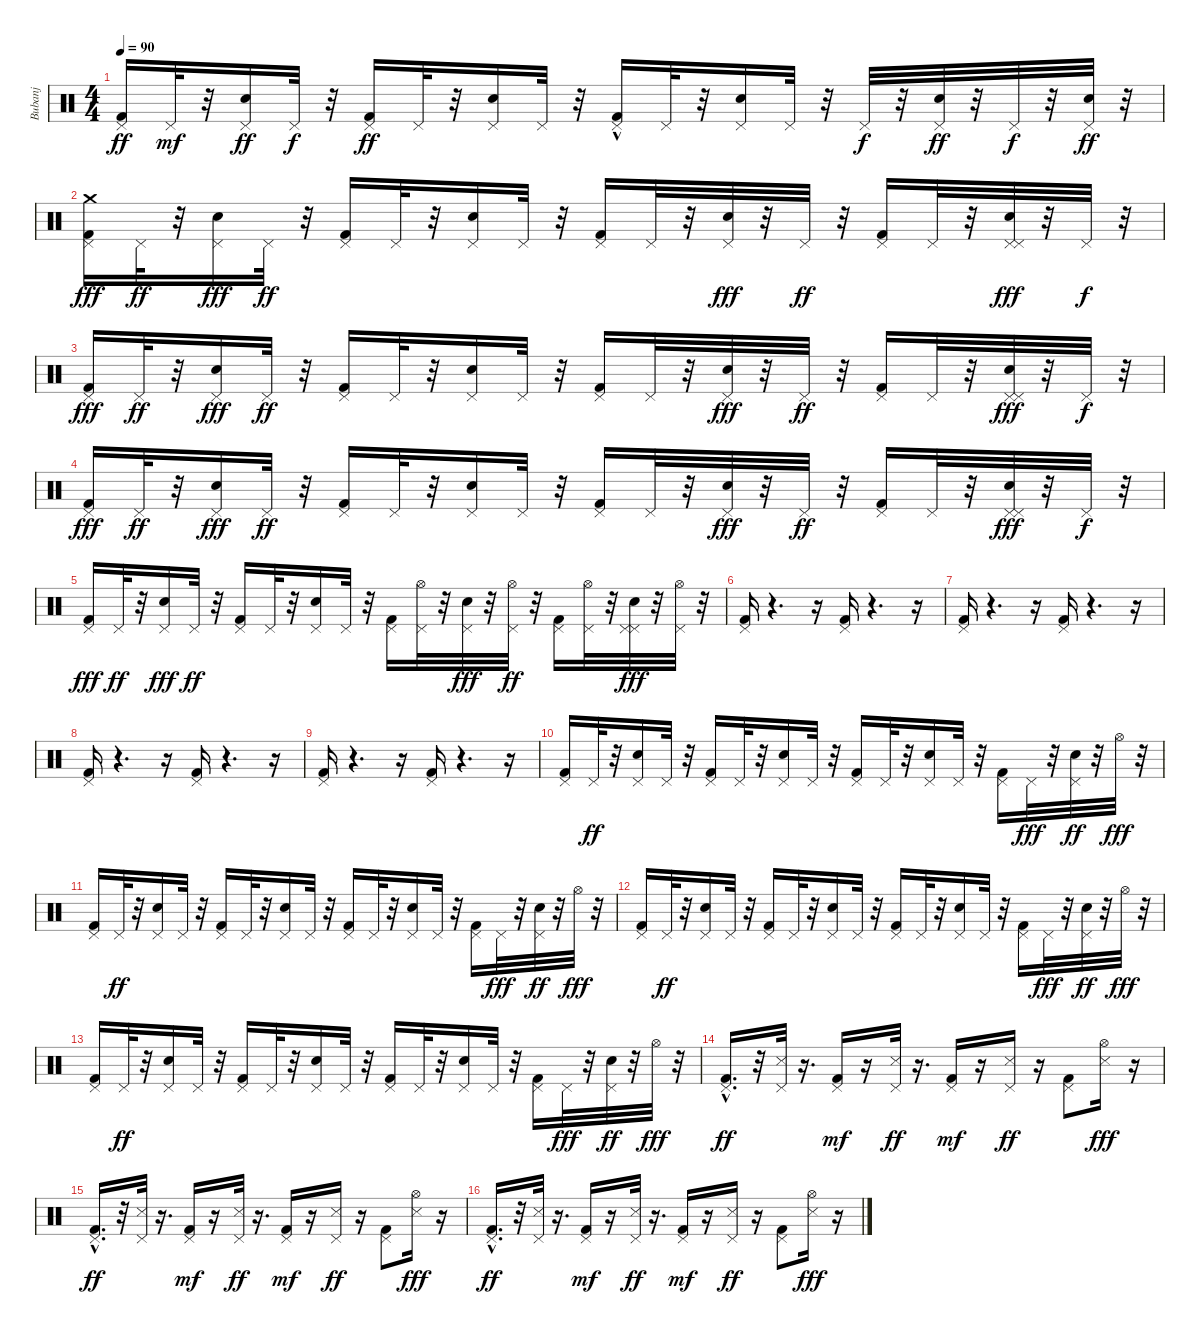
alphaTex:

\track ("Bubanj" "Bubanj") {instrument percussion}
\staff {score}
\articulation defaults
\ts (4 4)
\tempo 90
\clef neutral
\ks c
("Pedal Hi-Hat (hit)" "Kick (hit) 2").16{dy ff} "Pedal Hi-Hat (hit)".32{dy mf} r.32 ("Electric Snare (hit)" "Pedal Hi-Hat (hit)").16{dy ff} "Pedal Hi-Hat (hit)".32{dy f} r.32 ("Kick (hit) 2" "Pedal Hi-Hat (hit)").16{dy ff} "Pedal Hi-Hat (hit)".32 r.32 ("Electric Snare (hit)" "Pedal Hi-Hat (hit)").16 "Pedal Hi-Hat (hit)".32 r.32 ("Kick (hit) 2"{hac} "Pedal Hi-Hat (hit)").16 "Pedal Hi-Hat (hit)".32 r.32 ("Electric Snare (hit)" "Pedal Hi-Hat (hit)").16 "Pedal Hi-Hat (hit)".32 r.32 "Pedal Hi-Hat (hit)".32{dy f} r.32 ("Electric Snare (hit)" "Pedal Hi-Hat (hit)").32{dy ff} r.32 "Pedal Hi-Hat (hit)".32{dy f} r.32 ("Electric Snare (hit)" "Pedal Hi-Hat (hit)").32{dy ff} r.32 |
("Crash medium (hit)" "Pedal Hi-Hat (hit)" "Kick (hit) 2").16{dy fff} "Pedal Hi-Hat (hit)".32{dy ff} r.32 ("Pedal Hi-Hat (hit)" "Electric Snare (hit)").16{dy fff} "Pedal Hi-Hat (hit)".32{dy ff} r.32 ("Pedal Hi-Hat (hit)" "Kick (hit) 2").16 "Pedal Hi-Hat (hit)".32 r.32 ("Pedal Hi-Hat (hit)" "Electric Snare (hit)").16 "Pedal Hi-Hat (hit)".32 r.32 ("Pedal Hi-Hat (hit)" "Kick (hit) 2").16 "Pedal Hi-Hat (hit)".32 r.32 ("Pedal Hi-Hat (hit)" "Electric Snare (hit)").32{dy fff} r.32 "Pedal Hi-Hat (hit)".32{dy ff} r.32 ("Pedal Hi-Hat (hit)" "Kick (hit) 2").16 "Pedal Hi-Hat (hit)".32 r.32 ("Pedal Hi-Hat (hit)" "Pedal Hi-Hat (hit)" "Electric Snare (hit)").32{dy fff} r.32 "Pedal Hi-Hat (hit)".32{dy f} r.32 |
("Pedal Hi-Hat (hit)" "Kick (hit) 2").16{dy fff} "Pedal Hi-Hat (hit)".32{dy ff} r.32 ("Pedal Hi-Hat (hit)" "Electric Snare (hit)").16{dy fff} "Pedal Hi-Hat (hit)".32{dy ff} r.32 ("Pedal Hi-Hat (hit)" "Kick (hit) 2").16 "Pedal Hi-Hat (hit)".32 r.32 ("Pedal Hi-Hat (hit)" "Electric Snare (hit)").16 "Pedal Hi-Hat (hit)".32 r.32 ("Pedal Hi-Hat (hit)" "Kick (hit) 2").16 "Pedal Hi-Hat (hit)".32 r.32 ("Pedal Hi-Hat (hit)" "Electric Snare (hit)").32{dy fff} r.32 "Pedal Hi-Hat (hit)".32{dy ff} r.32 ("Pedal Hi-Hat (hit)" "Kick (hit) 2").16 "Pedal Hi-Hat (hit)".32 r.32 ("Pedal Hi-Hat (hit)" "Pedal Hi-Hat (hit)" "Electric Snare (hit)").32{dy fff} r.32 "Pedal Hi-Hat (hit)".32{dy f} r.32 |
("Pedal Hi-Hat (hit)" "Kick (hit) 2").16{dy fff} "Pedal Hi-Hat (hit)".32{dy ff} r.32 ("Pedal Hi-Hat (hit)" "Electric Snare (hit)").16{dy fff} "Pedal Hi-Hat (hit)".32{dy ff} r.32 ("Pedal Hi-Hat (hit)" "Kick (hit) 2").16 "Pedal Hi-Hat (hit)".32 r.32 ("Pedal Hi-Hat (hit)" "Electric Snare (hit)").16 "Pedal Hi-Hat (hit)".32 r.32 ("Pedal Hi-Hat (hit)" "Kick (hit) 2").16 "Pedal Hi-Hat (hit)".32 r.32 ("Pedal Hi-Hat (hit)" "Electric Snare (hit)").32{dy fff} r.32 "Pedal Hi-Hat (hit)".32{dy ff} r.32 ("Pedal Hi-Hat (hit)" "Kick (hit) 2").16 "Pedal Hi-Hat (hit)".32 r.32 ("Pedal Hi-Hat (hit)" "Pedal Hi-Hat (hit)" "Electric Snare (hit)").32{dy fff} r.32 "Pedal Hi-Hat (hit)".32{dy f} r.32 |
("Pedal Hi-Hat (hit)" "Kick (hit) 2").16{dy fff} "Pedal Hi-Hat (hit)".32{dy ff} r.32 ("Pedal Hi-Hat (hit)" "Electric Snare (hit)").16{dy fff} "Pedal Hi-Hat (hit)".32{dy ff} r.32 ("Pedal Hi-Hat (hit)" "Kick (hit) 2").16 "Pedal Hi-Hat (hit)".32 r.32 ("Pedal Hi-Hat (hit)" "Electric Snare (hit)").16 "Pedal Hi-Hat (hit)".32 r.32 ("Pedal Hi-Hat (hit)" "Kick (hit) 2").16 ("Hi-Hat (open)" "Pedal Hi-Hat (hit)").32 r.32 ("Pedal Hi-Hat (hit)" "Electric Snare (hit)").32{dy fff} r.32 ("Hi-Hat (open)" "Pedal Hi-Hat (hit)").32{dy ff} r.32 ("Pedal Hi-Hat (hit)" "Kick (hit) 2").16 ("Hi-Hat (open)" "Pedal Hi-Hat (hit)").32 r.32 ("Pedal Hi-Hat (hit)" "Pedal Hi-Hat (hit)" "Electric Snare (hit)").32{dy fff} r.32 ("Hi-Hat (open)" "Pedal Hi-Hat (hit)").32 r.32 |
("Kick (hit) 2" "Pedal Hi-Hat (hit)").16 r.4{d} r.16 ("Kick (hit) 2" "Pedal Hi-Hat (hit)").16 r.4{d} r.16 |
("Kick (hit) 2" "Pedal Hi-Hat (hit)").16 r.4{d} r.16 ("Kick (hit) 2" "Pedal Hi-Hat (hit)").16 r.4{d} r.16 |
("Kick (hit) 2" "Pedal Hi-Hat (hit)").16 r.4{d} r.16 ("Kick (hit) 2" "Pedal Hi-Hat (hit)").16 r.4{d} r.16 |
("Kick (hit) 2" "Pedal Hi-Hat (hit)").16 r.4{d} r.16 ("Kick (hit) 2" "Pedal Hi-Hat (hit)").16 r.4{d} r.16 |
("Pedal Hi-Hat (hit)" "Kick (hit) 2").16 "Pedal Hi-Hat (hit)".32{dy ff} r.32 ("Pedal Hi-Hat (hit)" "Electric Snare (hit)").16 "Pedal Hi-Hat (hit)".32 r.32 ("Pedal Hi-Hat (hit)" "Kick (hit) 2").16 "Pedal Hi-Hat (hit)".32 r.32 ("Pedal Hi-Hat (hit)" "Electric Snare (hit)").16 "Pedal Hi-Hat (hit)".32 r.32 ("Pedal Hi-Hat (hit)" "Kick (hit) 2").16 "Pedal Hi-Hat (hit)".32 r.32 ("Pedal Hi-Hat (hit)" "Electric Snare (hit)").16 "Pedal Hi-Hat (hit)".32 r.32 ("Pedal Hi-Hat (hit)" "Kick (hit) 2").16 "Pedal Hi-Hat (hit)".32{dy fff} r.32 ("Pedal Hi-Hat (hit)" "Electric Snare (hit)").32{dy ff} r.32 "Hi-Hat (open)".32{dy fff} r.32 |
("Pedal Hi-Hat (hit)" "Kick (hit) 2").16 "Pedal Hi-Hat (hit)".32{dy ff} r.32 ("Pedal Hi-Hat (hit)" "Electric Snare (hit)").16 "Pedal Hi-Hat (hit)".32 r.32 ("Pedal Hi-Hat (hit)" "Kick (hit) 2").16 "Pedal Hi-Hat (hit)".32 r.32 ("Pedal Hi-Hat (hit)" "Electric Snare (hit)").16 "Pedal Hi-Hat (hit)".32 r.32 ("Pedal Hi-Hat (hit)" "Kick (hit) 2").16 "Pedal Hi-Hat (hit)".32 r.32 ("Pedal Hi-Hat (hit)" "Electric Snare (hit)").16 "Pedal Hi-Hat (hit)".32 r.32 ("Pedal Hi-Hat (hit)" "Kick (hit) 2").16 "Pedal Hi-Hat (hit)".32{dy fff} r.32 ("Pedal Hi-Hat (hit)" "Electric Snare (hit)").32{dy ff} r.32 "Hi-Hat (open)".32{dy fff} r.32 |
("Pedal Hi-Hat (hit)" "Kick (hit) 2").16 "Pedal Hi-Hat (hit)".32{dy ff} r.32 ("Pedal Hi-Hat (hit)" "Electric Snare (hit)").16 "Pedal Hi-Hat (hit)".32 r.32 ("Pedal Hi-Hat (hit)" "Kick (hit) 2").16 "Pedal Hi-Hat (hit)".32 r.32 ("Pedal Hi-Hat (hit)" "Electric Snare (hit)").16 "Pedal Hi-Hat (hit)".32 r.32 ("Pedal Hi-Hat (hit)" "Kick (hit) 2").16 "Pedal Hi-Hat (hit)".32 r.32 ("Pedal Hi-Hat (hit)" "Electric Snare (hit)").16 "Pedal Hi-Hat (hit)".32 r.32 ("Pedal Hi-Hat (hit)" "Kick (hit) 2").16 "Pedal Hi-Hat (hit)".32{dy fff} r.32 ("Pedal Hi-Hat (hit)" "Electric Snare (hit)").32{dy ff} r.32 "Hi-Hat (open)".32{dy fff} r.32 |
("Pedal Hi-Hat (hit)" "Kick (hit) 2").16 "Pedal Hi-Hat (hit)".32{dy ff} r.32 ("Pedal Hi-Hat (hit)" "Electric Snare (hit)").16 "Pedal Hi-Hat (hit)".32 r.32 ("Pedal Hi-Hat (hit)" "Kick (hit) 2").16 "Pedal Hi-Hat (hit)".32 r.32 ("Pedal Hi-Hat (hit)" "Electric Snare (hit)").16 "Pedal Hi-Hat (hit)".32 r.32 ("Pedal Hi-Hat (hit)" "Kick (hit) 2").16 "Pedal Hi-Hat (hit)".32 r.32 ("Pedal Hi-Hat (hit)" "Electric Snare (hit)").16 "Pedal Hi-Hat (hit)".32 r.32 ("Pedal Hi-Hat (hit)" "Kick (hit) 2").16 "Pedal Hi-Hat (hit)".32{dy fff} r.32 ("Pedal Hi-Hat (hit)" "Electric Snare (hit)").32{dy ff} r.32 "Hi-Hat (open)".32{dy fff} r.32 |
("Kick (hit) 2"{hac} "Pedal Hi-Hat (hit)").16{d dy ff} r.32 ("Snare (side stick) 3" "Pedal Hi-Hat (hit)").32 r.16{d} ("Kick (hit) 2" "Pedal Hi-Hat (hit)").16{dy mf} r.16 ("Snare (side stick) 3" "Pedal Hi-Hat (hit)").32{dy ff} r.16{d} ("Kick (hit) 2" "Pedal Hi-Hat (hit)").16{dy mf} r.16 ("Snare (side stick) 3" "Pedal Hi-Hat (hit)").16{dy ff} r.16 ("Kick (hit) 2" "Pedal Hi-Hat (hit)").8 ("Snare (side stick) 3" "Hi-Hat (open)").16{dy fff} r.16 |
("Kick (hit) 2"{hac} "Pedal Hi-Hat (hit)").16{d dy ff} r.32 ("Snare (side stick) 3" "Pedal Hi-Hat (hit)").32 r.16{d} ("Kick (hit) 2" "Pedal Hi-Hat (hit)").16{dy mf} r.16 ("Snare (side stick) 3" "Pedal Hi-Hat (hit)").32{dy ff} r.16{d} ("Kick (hit) 2" "Pedal Hi-Hat (hit)").16{dy mf} r.16 ("Snare (side stick) 3" "Pedal Hi-Hat (hit)").16{dy ff} r.16 ("Kick (hit) 2" "Pedal Hi-Hat (hit)").8 ("Snare (side stick) 3" "Hi-Hat (open)").16{dy fff} r.16 |
("Kick (hit) 2"{hac} "Pedal Hi-Hat (hit)").16{d dy ff} r.32 ("Snare (side stick) 3" "Pedal Hi-Hat (hit)").32 r.16{d} ("Kick (hit) 2" "Pedal Hi-Hat (hit)").16{dy mf} r.16 ("Snare (side stick) 3" "Pedal Hi-Hat (hit)").32{dy ff} r.16{d} ("Kick (hit) 2" "Pedal Hi-Hat (hit)").16{dy mf} r.16 ("Snare (side stick) 3" "Pedal Hi-Hat (hit)").16{dy ff} r.16 ("Kick (hit) 2" "Pedal Hi-Hat (hit)").8 ("Snare (side stick) 3" "Hi-Hat (open)").16{dy fff} r.16
